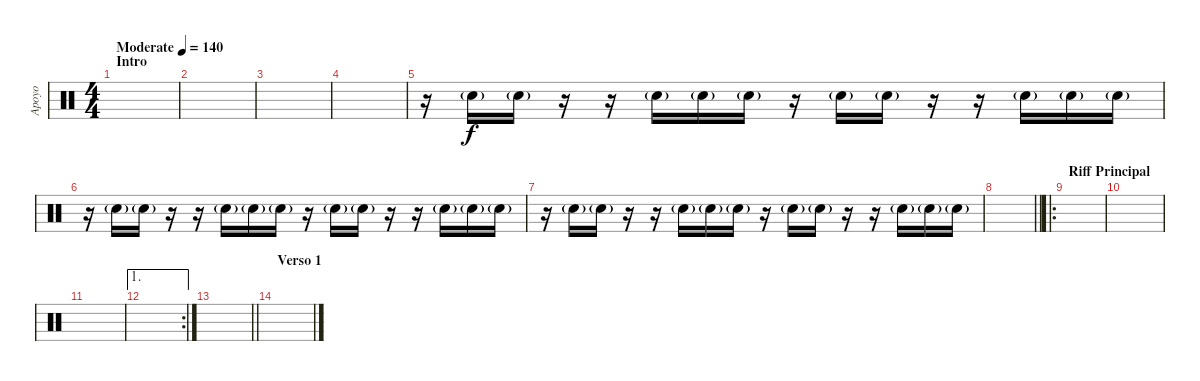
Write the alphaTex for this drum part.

\track ("Apoyo" "Apoyo") {instrument percussion}
\staff {score}
\articulation defaults
\ts (4 4)
\section ("" "Intro")
\tempo (140 "Moderate")
\clef neutral
\ks c
|
|
|
|
r.16 "Electric Snare (hit)"{g}.16 "Electric Snare (hit)"{g}.16 r.16 r.16 "Electric Snare (hit)"{g}.16 "Electric Snare (hit)"{g}.16 "Electric Snare (hit)"{g}.16 r.16 "Electric Snare (hit)"{g}.16 "Electric Snare (hit)"{g}.16 r.16 r.16 "Electric Snare (hit)"{g}.16 "Electric Snare (hit)"{g}.16 "Electric Snare (hit)"{g}.16 |
r.16 "Electric Snare (hit)"{g}.16 "Electric Snare (hit)"{g}.16 r.16 r.16 "Electric Snare (hit)"{g}.16 "Electric Snare (hit)"{g}.16 "Electric Snare (hit)"{g}.16 r.16 "Electric Snare (hit)"{g}.16 "Electric Snare (hit)"{g}.16 r.16 r.16 "Electric Snare (hit)"{g}.16 "Electric Snare (hit)"{g}.16 "Electric Snare (hit)"{g}.16 |
r.16 "Electric Snare (hit)"{g}.16 "Electric Snare (hit)"{g}.16 r.16 r.16 "Electric Snare (hit)"{g}.16 "Electric Snare (hit)"{g}.16 "Electric Snare (hit)"{g}.16 r.16 "Electric Snare (hit)"{g}.16 "Electric Snare (hit)"{g}.16 r.16 r.16 "Electric Snare (hit)"{g}.16 "Electric Snare (hit)"{g}.16 "Electric Snare (hit)"{g}.16 |
\barLineRight lightlight
|
\ro
\section ("" "Riff Principal")
|
|
|
\ae 1
\rc 2
|
\barLineRight lightlight
|
\section ("" "Verso 1")
